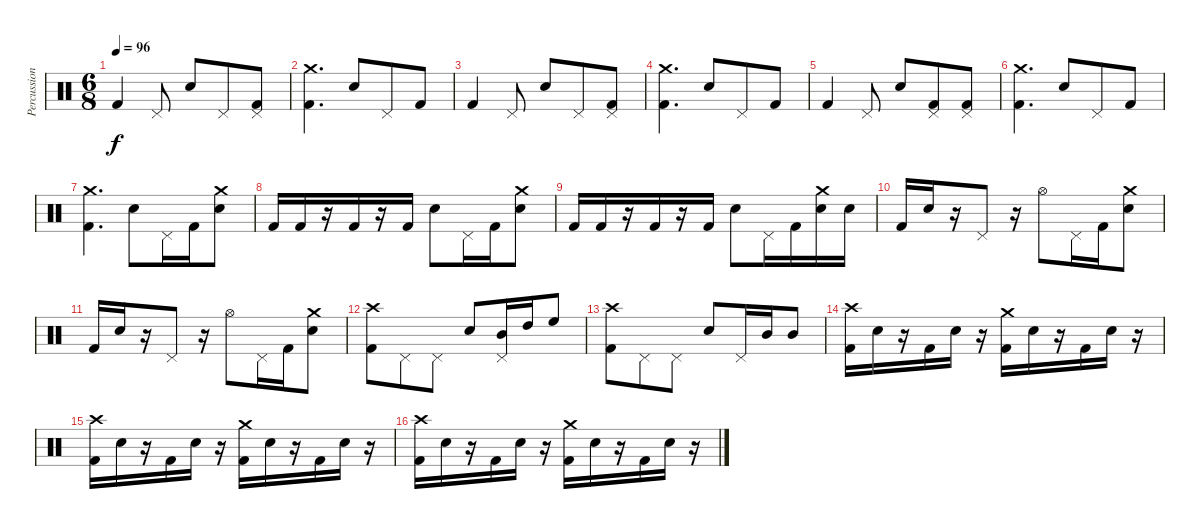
\track ("Percussion" "Percussion") {instrument percussion}
\staff {score}
\articulation defaults
\ts (6 8)
\tempo 96
\clef neutral
\ks c "Kick (hit) 2".4{dy f} "Pedal Hi-Hat (hit)".8 "Snare (hit) 2".8 "Pedal Hi-Hat (hit)".8
("Kick (hit) 2" "Pedal Hi-Hat (hit)").8 |
("Kick (hit) 2" "Crash medium (hit)").4{d} "Snare (hit) 2".8 "Pedal Hi-Hat (hit)".8 "Kick (hit) 2".8 |
"Kick (hit) 2".4 "Pedal Hi-Hat (hit)".8 "Snare (hit) 2".8 "Pedal Hi-Hat (hit)".8 ("Kick (hit) 2" "Pedal Hi-Hat (hit)").8 |
("Kick (hit) 2" "Crash medium (hit)").4{d} "Snare (hit) 2".8 "Pedal Hi-Hat (hit)".8 "Kick (hit) 2".8 |
"Kick (hit) 2".4 "Pedal Hi-Hat (hit)".8 "Snare (hit) 2".8 ("Kick (hit) 2" "Pedal Hi-Hat (hit)").8 ("Kick (hit) 2" "Pedal Hi-Hat (hit)").8 |
("Kick (hit) 2" "Crash medium (hit)").4{d} "Snare (hit) 2".8 "Pedal Hi-Hat (hit)".8 "Kick (hit) 2".8 |
("Kick (hit) 2" "Crash medium (hit)").4{d} "Snare (hit) 2".8 "Pedal Hi-Hat (hit)".16 "Kick (hit) 2".16 ("Snare (hit) 2" "Crash medium (hit)").8 |
"Kick (hit) 2".16 "Kick (hit) 2".16 r.16 "Kick (hit) 2".16 r.16 "Kick (hit) 2".16 "Snare (hit) 2".8 "Pedal Hi-Hat (hit)".16 "Kick (hit) 2".16 ("Snare (hit) 2" "Crash medium (hit)").8 |
"Kick (hit) 2".16 "Kick (hit) 2".16 r.16 "Kick (hit) 2".16 r.16 "Kick (hit) 2".16 "Snare (hit) 2".8 "Pedal Hi-Hat (hit)".16 "Kick (hit) 2".16 ("Snare (hit) 2" "Crash medium (hit)").16 "Snare (hit) 2".16 |
"Kick (hit) 2".16 "Snare (hit) 2".16 r.16 "Pedal Hi-Hat (hit)".8 r.16 "Hi-Hat (open)".8 "Pedal Hi-Hat (hit)".16 "Kick (hit) 2".16 ("Snare (hit) 2" "Crash medium (hit)").8 |
"Kick (hit) 2".16 "Snare (hit) 2".16 r.16 "Pedal Hi-Hat (hit)".8 r.16 "Hi-Hat (open)".8 "Pedal Hi-Hat (hit)".16 "Kick (hit) 2".16 ("Snare (hit) 2" "Crash medium (hit)").8 |
("Kick (hit) 2" "Crash high (hit)").8 "Pedal Hi-Hat (hit)".8 "Pedal Hi-Hat (hit)".8 "Snare (hit) 2".8 ("Mid Tom (hit)" "Pedal Hi-Hat (hit)").16 "High Tom (hit)".16 "High Floor Tom (hit)".8 |
("Kick (hit) 2" "Crash high (hit)").8 "Pedal Hi-Hat (hit)".8 "Pedal Hi-Hat (hit)".8 "Snare (hit) 2".8 "Pedal Hi-Hat (hit)".16 "Mid Tom (hit)".16 "Mid Tom (hit)".8 |
("Kick (hit) 2" "Crash high (hit)").16 "Snare (hit) 2".16 r.16 "Kick (hit) 2".16 "Snare (hit) 2".16 r.16 ("Kick (hit) 2" "Crash medium (hit)").16 "Snare (hit) 2".16 r.16 "Kick (hit) 2".16 "Snare (hit) 2".16 r.16 |
("Kick (hit) 2" "Crash high (hit)").16 "Snare (hit) 2".16 r.16 "Kick (hit) 2".16 "Snare (hit) 2".16 r.16 ("Kick (hit) 2" "Crash medium (hit)").16 "Snare (hit) 2".16 r.16 "Kick (hit) 2".16 "Snare (hit) 2".16 r.16 |
("Kick (hit) 2" "Crash high (hit)").16 "Snare (hit) 2".16 r.16 "Kick (hit) 2".16 "Snare (hit) 2".16 r.16 ("Kick (hit) 2" "Crash medium (hit)").16 "Snare (hit) 2".16 r.16 "Kick (hit) 2".16 "Snare (hit) 2".16 r.16
